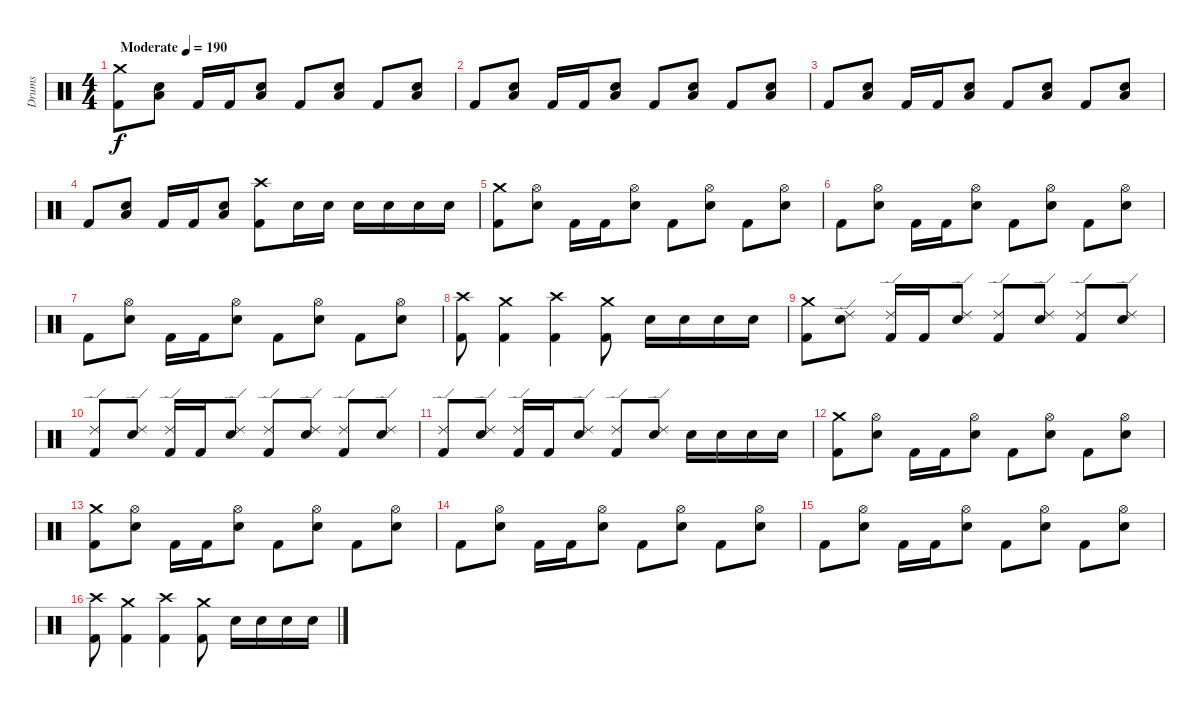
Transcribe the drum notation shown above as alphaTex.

\track ("Drums" "Drums") {instrument percussion}
\staff {score}
\articulation defaults
\ts (4 4)
\tempo (190 "Moderate")
\clef neutral
\ks c
("Crash medium (hit)" "Kick (hit) 2").8{dy f} ("Low Tom (hit)" "Electric Snare (hit)").8 "Kick (hit) 2".16 "Kick (hit) 2".16 ("Low Tom (hit)" "Electric Snare (hit)").8 "Kick (hit) 2".8 ("Low Tom (hit)" "Electric Snare (hit)").8 "Kick (hit) 2".8 ("Low Tom (hit)" "Electric Snare (hit)").8 |
"Kick (hit) 2".8 ("Low Tom (hit)" "Electric Snare (hit)").8 "Kick (hit) 2".16 "Kick (hit) 2".16 ("Low Tom (hit)" "Electric Snare (hit)").8 "Kick (hit) 2".8 ("Low Tom (hit)" "Electric Snare (hit)").8 "Kick (hit) 2".8 ("Low Tom (hit)" "Electric Snare (hit)").8 |
"Kick (hit) 2".8 ("Low Tom (hit)" "Electric Snare (hit)").8 "Kick (hit) 2".16 "Kick (hit) 2".16 ("Low Tom (hit)" "Electric Snare (hit)").8 "Kick (hit) 2".8 ("Low Tom (hit)" "Electric Snare (hit)").8 "Kick (hit) 2".8 ("Low Tom (hit)" "Electric Snare (hit)").8 |
"Kick (hit) 2".8 ("Low Tom (hit)" "Electric Snare (hit)").8 "Kick (hit) 2".16 "Kick (hit) 2".16 ("Low Tom (hit)" "Electric Snare (hit)").8 ("Crash high (hit)" "Kick (hit) 2").8 "Electric Snare (hit)".16 "Electric Snare (hit)".16 "Electric Snare (hit)".16 "Electric Snare (hit)".16 "Electric Snare (hit)".16 "Electric Snare (hit)".16 |
("Crash medium (hit)" "Kick (hit) 2").8 ("Hi-Hat (open)" "Electric Snare (hit)").8 "Kick (hit) 2".16 "Kick (hit) 2".16 ("Hi-Hat (open)" "Electric Snare (hit)").8 "Kick (hit) 2".8 ("Hi-Hat (open)" "Electric Snare (hit)").8 "Kick (hit) 2".8 ("Hi-Hat (open)" "Electric Snare (hit)").8 |
"Kick (hit) 2".8 ("Hi-Hat (open)" "Electric Snare (hit)").8 "Kick (hit) 2".16 "Kick (hit) 2".16 ("Hi-Hat (open)" "Electric Snare (hit)").8 "Kick (hit) 2".8 ("Hi-Hat (open)" "Electric Snare (hit)").8 "Kick (hit) 2".8 ("Hi-Hat (open)" "Electric Snare (hit)").8 |
"Kick (hit) 2".8 ("Hi-Hat (open)" "Electric Snare (hit)").8 "Kick (hit) 2".16 "Kick (hit) 2".16 ("Hi-Hat (open)" "Electric Snare (hit)").8 "Kick (hit) 2".8 ("Hi-Hat (open)" "Electric Snare (hit)").8 "Kick (hit) 2".8 ("Hi-Hat (open)" "Electric Snare (hit)").8 |
("Crash high (hit)" "Kick (hit) 2").8 ("Crash medium (hit)" "Kick (hit) 2").4 ("Crash high (hit)" "Kick (hit) 2").4 ("Crash medium (hit)" "Kick (hit) 2").8 "Electric Snare (hit)".16 "Electric Snare (hit)".16 "Electric Snare (hit)".16 "Electric Snare (hit)".16 |
("Crash medium (hit)" "Kick (hit) 2").8 ("Ride (edge) 2" "Electric Snare (hit)").8 ("Ride (edge) 2" "Kick (hit) 2").16 "Kick (hit) 2".16 ("Ride (edge) 2" "Electric Snare (hit)").8 ("Ride (edge) 2" "Kick (hit) 2").8 ("Ride (edge) 2" "Electric Snare (hit)").8 ("Ride (edge) 2" "Kick (hit) 2").8 ("Ride (edge) 2" "Electric Snare (hit)").8 |
("Ride (edge) 2" "Kick (hit) 2").8 ("Ride (edge) 2" "Electric Snare (hit)").8 ("Ride (edge) 2" "Kick (hit) 2").16 "Kick (hit) 2".16 ("Ride (edge) 2" "Electric Snare (hit)").8 ("Ride (edge) 2" "Kick (hit) 2").8 ("Ride (edge) 2" "Electric Snare (hit)").8 ("Ride (edge) 2" "Kick (hit) 2").8 ("Ride (edge) 2" "Electric Snare (hit)").8 |
("Ride (edge) 2" "Kick (hit) 2").8 ("Ride (edge) 2" "Electric Snare (hit)").8 ("Ride (edge) 2" "Kick (hit) 2").16 "Kick (hit) 2".16 ("Ride (edge) 2" "Electric Snare (hit)").8 ("Ride (edge) 2" "Kick (hit) 2").8 ("Ride (edge) 2" "Electric Snare (hit)").8 "Electric Snare (hit)".16 "Electric Snare (hit)".16 "Electric Snare (hit)".16 "Electric Snare (hit)".16 |
("Crash medium (hit)" "Kick (hit) 2").8 ("Hi-Hat (open)" "Electric Snare (hit)").8 "Kick (hit) 2".16 "Kick (hit) 2".16 ("Hi-Hat (open)" "Electric Snare (hit)").8 "Kick (hit) 2".8 ("Hi-Hat (open)" "Electric Snare (hit)").8 "Kick (hit) 2".8 ("Hi-Hat (open)" "Electric Snare (hit)").8 |
("Crash medium (hit)" "Kick (hit) 2").8 ("Hi-Hat (open)" "Electric Snare (hit)").8 "Kick (hit) 2".16 "Kick (hit) 2".16 ("Hi-Hat (open)" "Electric Snare (hit)").8 "Kick (hit) 2".8 ("Hi-Hat (open)" "Electric Snare (hit)").8 "Kick (hit) 2".8 ("Hi-Hat (open)" "Electric Snare (hit)").8 |
"Kick (hit) 2".8 ("Hi-Hat (open)" "Electric Snare (hit)").8 "Kick (hit) 2".16 "Kick (hit) 2".16 ("Hi-Hat (open)" "Electric Snare (hit)").8 "Kick (hit) 2".8 ("Hi-Hat (open)" "Electric Snare (hit)").8 "Kick (hit) 2".8 ("Hi-Hat (open)" "Electric Snare (hit)").8 |
"Kick (hit) 2".8 ("Hi-Hat (open)" "Electric Snare (hit)").8 "Kick (hit) 2".16 "Kick (hit) 2".16 ("Hi-Hat (open)" "Electric Snare (hit)").8 "Kick (hit) 2".8 ("Hi-Hat (open)" "Electric Snare (hit)").8 "Kick (hit) 2".8 ("Hi-Hat (open)" "Electric Snare (hit)").8 |
("Crash high (hit)" "Kick (hit) 2").8 ("Crash medium (hit)" "Kick (hit) 2").4 ("Crash high (hit)" "Kick (hit) 2").4 ("Crash medium (hit)" "Kick (hit) 2").8 "Electric Snare (hit)".16 "Electric Snare (hit)".16 "Electric Snare (hit)".16 "Electric Snare (hit)".16
